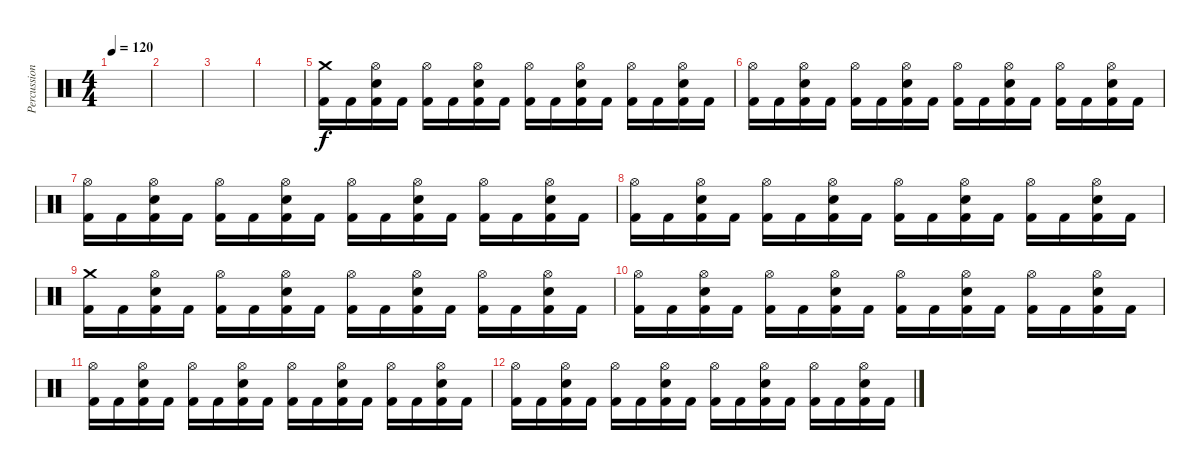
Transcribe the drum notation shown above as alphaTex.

\track ("Percussions" "Percussion") {instrument percussion}
\staff {score}
\articulation defaults
\ts (4 4)
\tempo 120
\clef neutral
\ks c
|
|
|
|
("Kick (hit) 2" "Crash medium (hit)").16 "Kick (hit) 2".16 ("Kick (hit) 2" "Electric Snare (hit)" "Hi-Hat (open)").16 "Kick (hit) 2".16 ("Kick (hit) 2" "Hi-Hat (open)").16 "Kick (hit) 2".16 ("Kick (hit) 2" "Electric Snare (hit)" "Hi-Hat (open)").16 "Kick (hit) 2".16 ("Kick (hit) 2" "Hi-Hat (open)").16 "Kick (hit) 2".16 ("Kick (hit) 2" "Electric Snare (hit)" "Hi-Hat (open)").16 "Kick (hit) 2".16 ("Kick (hit) 2" "Hi-Hat (open)").16 "Kick (hit) 2".16 ("Kick (hit) 2" "Electric Snare (hit)" "Hi-Hat (open)").16 "Kick (hit) 2".16 |
("Kick (hit) 2" "Hi-Hat (open)").16 "Kick (hit) 2".16 ("Kick (hit) 2" "Electric Snare (hit)" "Hi-Hat (open)").16 "Kick (hit) 2".16 ("Kick (hit) 2" "Hi-Hat (open)").16 "Kick (hit) 2".16 ("Kick (hit) 2" "Electric Snare (hit)" "Hi-Hat (open)").16 "Kick (hit) 2".16 ("Kick (hit) 2" "Hi-Hat (open)").16 "Kick (hit) 2".16 ("Kick (hit) 2" "Electric Snare (hit)" "Hi-Hat (open)").16 "Kick (hit) 2".16 ("Kick (hit) 2" "Hi-Hat (open)").16 "Kick (hit) 2".16 ("Kick (hit) 2" "Electric Snare (hit)" "Hi-Hat (open)").16 "Kick (hit) 2".16 |
("Kick (hit) 2" "Hi-Hat (open)").16 "Kick (hit) 2".16 ("Kick (hit) 2" "Electric Snare (hit)" "Hi-Hat (open)").16 "Kick (hit) 2".16 ("Kick (hit) 2" "Hi-Hat (open)").16 "Kick (hit) 2".16 ("Kick (hit) 2" "Electric Snare (hit)" "Hi-Hat (open)").16 "Kick (hit) 2".16 ("Kick (hit) 2" "Hi-Hat (open)").16 "Kick (hit) 2".16 ("Kick (hit) 2" "Electric Snare (hit)" "Hi-Hat (open)").16 "Kick (hit) 2".16 ("Kick (hit) 2" "Hi-Hat (open)").16 "Kick (hit) 2".16 ("Kick (hit) 2" "Electric Snare (hit)" "Hi-Hat (open)").16 "Kick (hit) 2".16 |
("Kick (hit) 2" "Hi-Hat (open)").16 "Kick (hit) 2".16 ("Kick (hit) 2" "Electric Snare (hit)" "Hi-Hat (open)").16 "Kick (hit) 2".16 ("Kick (hit) 2" "Hi-Hat (open)").16 "Kick (hit) 2".16 ("Kick (hit) 2" "Electric Snare (hit)" "Hi-Hat (open)").16 "Kick (hit) 2".16 ("Kick (hit) 2" "Hi-Hat (open)").16 "Kick (hit) 2".16 ("Kick (hit) 2" "Electric Snare (hit)" "Hi-Hat (open)").16 "Kick (hit) 2".16 ("Kick (hit) 2" "Hi-Hat (open)").16 "Kick (hit) 2".16 ("Kick (hit) 2" "Electric Snare (hit)" "Hi-Hat (open)").16 "Kick (hit) 2".16 |
("Kick (hit) 2" "Crash medium (hit)").16 "Kick (hit) 2".16 ("Kick (hit) 2" "Electric Snare (hit)" "Hi-Hat (open)").16 "Kick (hit) 2".16 ("Kick (hit) 2" "Hi-Hat (open)").16 "Kick (hit) 2".16 ("Kick (hit) 2" "Electric Snare (hit)" "Hi-Hat (open)").16 "Kick (hit) 2".16 ("Kick (hit) 2" "Hi-Hat (open)").16 "Kick (hit) 2".16 ("Kick (hit) 2" "Electric Snare (hit)" "Hi-Hat (open)").16 "Kick (hit) 2".16 ("Kick (hit) 2" "Hi-Hat (open)").16 "Kick (hit) 2".16 ("Kick (hit) 2" "Electric Snare (hit)" "Hi-Hat (open)").16 "Kick (hit) 2".16 |
("Kick (hit) 2" "Hi-Hat (open)").16 "Kick (hit) 2".16 ("Kick (hit) 2" "Electric Snare (hit)" "Hi-Hat (open)").16 "Kick (hit) 2".16 ("Kick (hit) 2" "Hi-Hat (open)").16 "Kick (hit) 2".16 ("Kick (hit) 2" "Electric Snare (hit)" "Hi-Hat (open)").16 "Kick (hit) 2".16 ("Kick (hit) 2" "Hi-Hat (open)").16 "Kick (hit) 2".16 ("Kick (hit) 2" "Electric Snare (hit)" "Hi-Hat (open)").16 "Kick (hit) 2".16 ("Kick (hit) 2" "Hi-Hat (open)").16 "Kick (hit) 2".16 ("Kick (hit) 2" "Electric Snare (hit)" "Hi-Hat (open)").16 "Kick (hit) 2".16 |
("Kick (hit) 2" "Hi-Hat (open)").16 "Kick (hit) 2".16 ("Kick (hit) 2" "Electric Snare (hit)" "Hi-Hat (open)").16 "Kick (hit) 2".16 ("Kick (hit) 2" "Hi-Hat (open)").16 "Kick (hit) 2".16 ("Kick (hit) 2" "Electric Snare (hit)" "Hi-Hat (open)").16 "Kick (hit) 2".16 ("Kick (hit) 2" "Hi-Hat (open)").16 "Kick (hit) 2".16 ("Kick (hit) 2" "Electric Snare (hit)" "Hi-Hat (open)").16 "Kick (hit) 2".16 ("Kick (hit) 2" "Hi-Hat (open)").16 "Kick (hit) 2".16 ("Kick (hit) 2" "Electric Snare (hit)" "Hi-Hat (open)").16 "Kick (hit) 2".16 |
("Kick (hit) 2" "Hi-Hat (open)").16 "Kick (hit) 2".16 ("Kick (hit) 2" "Electric Snare (hit)" "Hi-Hat (open)").16 "Kick (hit) 2".16 ("Kick (hit) 2" "Hi-Hat (open)").16 "Kick (hit) 2".16 ("Kick (hit) 2" "Electric Snare (hit)" "Hi-Hat (open)").16 "Kick (hit) 2".16 ("Kick (hit) 2" "Hi-Hat (open)").16 "Kick (hit) 2".16 ("Kick (hit) 2" "Electric Snare (hit)" "Hi-Hat (open)").16 "Kick (hit) 2".16 ("Kick (hit) 2" "Hi-Hat (open)").16 "Kick (hit) 2".16 ("Kick (hit) 2" "Electric Snare (hit)" "Hi-Hat (open)").16 "Kick (hit) 2".16
